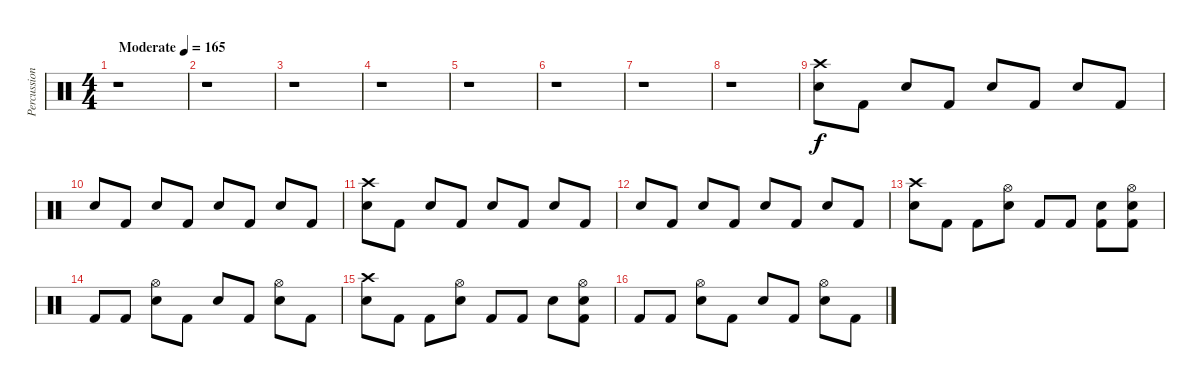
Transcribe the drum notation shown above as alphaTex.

\track ("Percussion" "Percussion") {instrument percussion}
\staff {score}
\articulation defaults
\ts (4 4)
\tempo (165 "Moderate")
\clef neutral
\ks c
r.1{dy f} |
r.1 |
r.1 |
r.1 |
r.1 |
r.1 |
r.1 |
r.1 |
("Crash high (hit)" "Electric Snare (hit)").8 "Kick (hit) 2".8 "Electric Snare (hit)".8 "Kick (hit) 2".8 "Electric Snare (hit)".8 "Kick (hit) 2".8 "Electric Snare (hit)".8 "Kick (hit) 2".8 |
"Electric Snare (hit)".8 "Kick (hit) 2".8 "Electric Snare (hit)".8 "Kick (hit) 2".8 "Electric Snare (hit)".8 "Kick (hit) 2".8 "Electric Snare (hit)".8 "Kick (hit) 2".8 |
("Crash high (hit)" "Electric Snare (hit)").8 "Kick (hit) 2".8 "Electric Snare (hit)".8 "Kick (hit) 2".8 "Electric Snare (hit)".8 "Kick (hit) 2".8 "Electric Snare (hit)".8 "Kick (hit) 2".8 |
"Electric Snare (hit)".8 "Kick (hit) 2".8 "Electric Snare (hit)".8 "Kick (hit) 2".8 "Electric Snare (hit)".8 "Kick (hit) 2".8 "Electric Snare (hit)".8 "Kick (hit) 2".8 |
("Crash high (hit)" "Electric Snare (hit)").8 "Kick (hit) 2".8 "Kick (hit) 2".8 ("Hi-Hat (open)" "Electric Snare (hit)").8 "Kick (hit) 2".8 "Kick (hit) 2".8 ("Electric Snare (hit)" "Kick (hit) 2").8 ("Hi-Hat (open)" "Electric Snare (hit)" "Kick (hit) 2").8 |
"Kick (hit) 2".8 "Kick (hit) 2".8 ("Hi-Hat (open)" "Electric Snare (hit)").8 "Kick (hit) 2".8 "Electric Snare (hit)".8 "Kick (hit) 2".8 ("Hi-Hat (open)" "Electric Snare (hit)").8 "Kick (hit) 2".8 |
("Crash high (hit)" "Electric Snare (hit)").8 "Kick (hit) 2".8 "Kick (hit) 2".8 ("Hi-Hat (open)" "Electric Snare (hit)").8 "Kick (hit) 2".8 "Kick (hit) 2".8 "Electric Snare (hit)".8 ("Hi-Hat (open)" "Electric Snare (hit)" "Kick (hit) 2").8 |
"Kick (hit) 2".8 "Kick (hit) 2".8 ("Hi-Hat (open)" "Electric Snare (hit)").8 "Kick (hit) 2".8 "Electric Snare (hit)".8 "Kick (hit) 2".8 ("Hi-Hat (open)" "Electric Snare (hit)").8 "Kick (hit) 2".8
